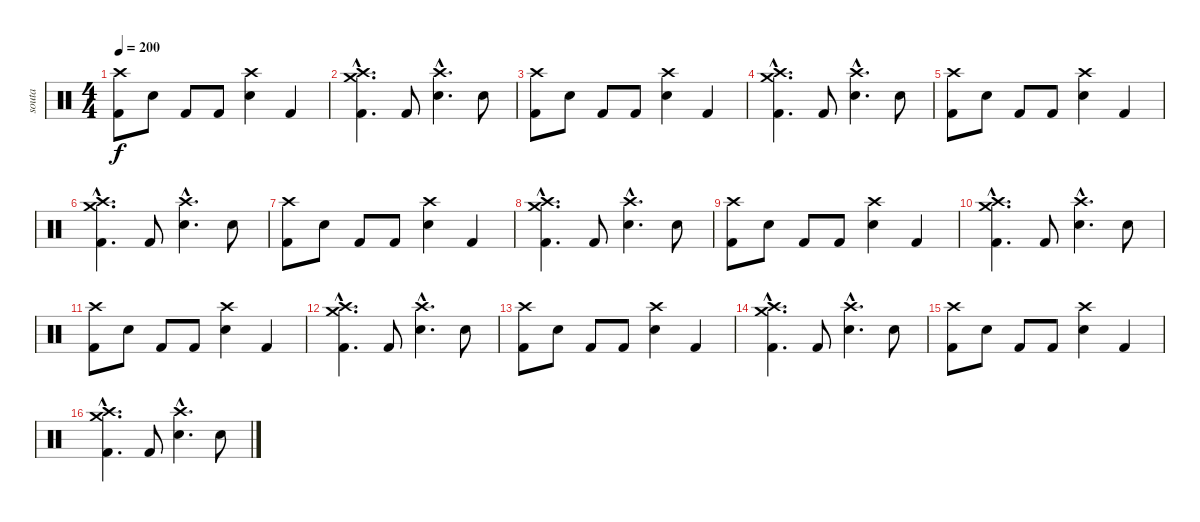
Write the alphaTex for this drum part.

\track ("souta" "souta") {instrument percussion}
\staff {score}
\articulation defaults
\ts (4 4)
\tempo 200
\clef neutral
\ks c
("Crash high (hit)" "Kick (hit) 2").8{dy f} "Snare (hit) 2".8 "Kick (hit) 2".8 "Kick (hit) 2".8 ("Crash high (hit)" "Snare (hit) 2").4 "Kick (hit) 2".4 |
("Crash high (hit)"{hac} "Kick (hit) 2"{hac} "Crash medium (hit)"{hac}).4{d} "Kick (hit) 2".8 ("Crash high (hit)"{hac} "Snare (hit) 2"{hac}).4{d} "Snare (hit) 2".8 |
("Crash high (hit)" "Kick (hit) 2").8 "Snare (hit) 2".8 "Kick (hit) 2".8 "Kick (hit) 2".8 ("Crash high (hit)" "Snare (hit) 2").4 "Kick (hit) 2".4 |
("Crash high (hit)"{hac} "Kick (hit) 2"{hac} "Crash medium (hit)"{hac}).4{d} "Kick (hit) 2".8 ("Crash high (hit)"{hac} "Snare (hit) 2"{hac}).4{d} "Snare (hit) 2".8 |
("Crash high (hit)" "Kick (hit) 2").8 "Snare (hit) 2".8 "Kick (hit) 2".8 "Kick (hit) 2".8 ("Crash high (hit)" "Snare (hit) 2").4 "Kick (hit) 2".4 |
("Crash high (hit)"{hac} "Kick (hit) 2"{hac} "Crash medium (hit)"{hac}).4{d} "Kick (hit) 2".8 ("Crash high (hit)"{hac} "Snare (hit) 2"{hac}).4{d} "Snare (hit) 2".8 |
("Crash high (hit)" "Kick (hit) 2").8 "Snare (hit) 2".8 "Kick (hit) 2".8 "Kick (hit) 2".8 ("Crash high (hit)" "Snare (hit) 2").4 "Kick (hit) 2".4 |
("Crash high (hit)"{hac} "Kick (hit) 2"{hac} "Crash medium (hit)"{hac}).4{d} "Kick (hit) 2".8 ("Crash high (hit)"{hac} "Snare (hit) 2"{hac}).4{d} "Snare (hit) 2".8 |
("Crash high (hit)" "Kick (hit) 2").8 "Snare (hit) 2".8 "Kick (hit) 2".8 "Kick (hit) 2".8 ("Crash high (hit)" "Snare (hit) 2").4 "Kick (hit) 2".4 |
("Crash high (hit)"{hac} "Kick (hit) 2"{hac} "Crash medium (hit)"{hac}).4{d} "Kick (hit) 2".8 ("Crash high (hit)"{hac} "Snare (hit) 2"{hac}).4{d} "Snare (hit) 2".8 |
("Crash high (hit)" "Kick (hit) 2").8 "Snare (hit) 2".8 "Kick (hit) 2".8 "Kick (hit) 2".8 ("Crash high (hit)" "Snare (hit) 2").4 "Kick (hit) 2".4 |
("Crash high (hit)"{hac} "Kick (hit) 2"{hac} "Crash medium (hit)"{hac}).4{d} "Kick (hit) 2".8 ("Crash high (hit)"{hac} "Snare (hit) 2"{hac}).4{d} "Snare (hit) 2".8 |
("Crash high (hit)" "Kick (hit) 2").8 "Snare (hit) 2".8 "Kick (hit) 2".8 "Kick (hit) 2".8 ("Crash high (hit)" "Snare (hit) 2").4 "Kick (hit) 2".4 |
("Crash high (hit)"{hac} "Kick (hit) 2"{hac} "Crash medium (hit)"{hac}).4{d} "Kick (hit) 2".8 ("Crash high (hit)"{hac} "Snare (hit) 2"{hac}).4{d} "Snare (hit) 2".8 |
("Crash high (hit)" "Kick (hit) 2").8 "Snare (hit) 2".8 "Kick (hit) 2".8 "Kick (hit) 2".8 ("Crash high (hit)" "Snare (hit) 2").4 "Kick (hit) 2".4 |
("Crash high (hit)"{hac} "Kick (hit) 2"{hac} "Crash medium (hit)"{hac}).4{d} "Kick (hit) 2".8 ("Crash high (hit)"{hac} "Snare (hit) 2"{hac}).4{d} "Snare (hit) 2".8
